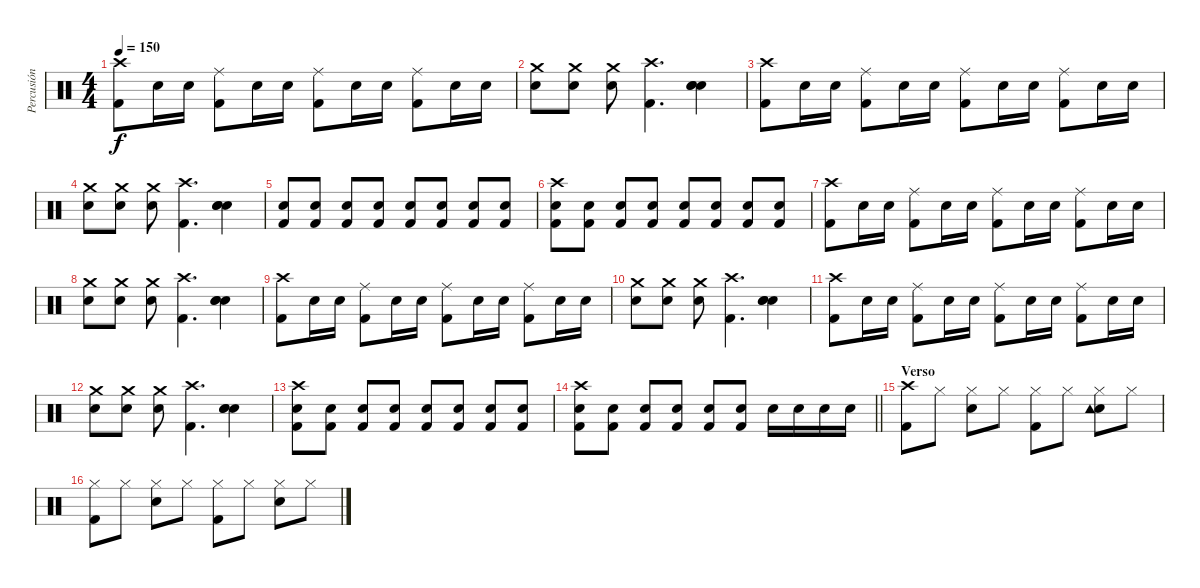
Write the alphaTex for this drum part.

\track ("Percusión" "Percusión") {instrument percussion}
\staff {score}
\articulation defaults
\ts (4 4)
\tempo 150
\clef neutral
\ks c
("Crash high (hit)" "Kick (hit) 2").8{dy f} "Snare (hit) 2".16 "Snare (hit) 2".16 ("Ride (middle)" "Kick (hit) 2").8 "Snare (hit) 2".16 "Snare (hit) 2".16 ("Ride (middle)" "Kick (hit) 2").8 "Snare (hit) 2".16 "Snare (hit) 2".16 ("Ride (middle)" "Kick (hit) 2").8 "Snare (hit) 2".16 "Snare (hit) 2".16 |
("Crash medium (hit)" "Snare (hit) 2").8 ("Crash medium (hit)" "Snare (hit) 2").8 ("Crash medium (hit)" "Snare (hit) 2").8 ("Crash high (hit)" "Kick (hit) 2").4{d} ("Snare (hit) 2" "Snare (hit) 2" "Snare (hit) 2").4 |
("Crash high (hit)" "Kick (hit) 2").8 "Snare (hit) 2".16 "Snare (hit) 2".16 ("Ride (middle)" "Kick (hit) 2").8 "Snare (hit) 2".16 "Snare (hit) 2".16 ("Ride (middle)" "Kick (hit) 2").8 "Snare (hit) 2".16 "Snare (hit) 2".16 ("Ride (middle)" "Kick (hit) 2").8 "Snare (hit) 2".16 "Snare (hit) 2".16 |
("Crash medium (hit)" "Snare (hit) 2").8 ("Crash medium (hit)" "Snare (hit) 2").8 ("Crash medium (hit)" "Snare (hit) 2").8 ("Crash high (hit)" "Kick (hit) 2").4{d} ("Snare (hit) 2" "Snare (hit) 2" "Snare (hit) 2").4 |
("Snare (hit) 2" "Kick (hit) 2").8 ("Snare (hit) 2" "Kick (hit) 2").8 ("Snare (hit) 2" "Kick (hit) 2").8 ("Snare (hit) 2" "Kick (hit) 2").8 ("Snare (hit) 2" "Kick (hit) 2").8 ("Snare (hit) 2" "Kick (hit) 2").8 ("Snare (hit) 2" "Kick (hit) 2").8 ("Snare (hit) 2" "Kick (hit) 2").8 |
("Crash high (hit)" "Snare (hit) 2" "Kick (hit) 2").8 ("Snare (hit) 2" "Kick (hit) 2").8 ("Snare (hit) 2" "Kick (hit) 2").8 ("Snare (hit) 2" "Kick (hit) 2").8 ("Snare (hit) 2" "Kick (hit) 2").8 ("Snare (hit) 2" "Kick (hit) 2").8 ("Snare (hit) 2" "Kick (hit) 2").8 ("Snare (hit) 2" "Kick (hit) 2").8 |
("Crash high (hit)" "Kick (hit) 2").8 "Snare (hit) 2".16 "Snare (hit) 2".16 ("Ride (middle)" "Kick (hit) 2").8 "Snare (hit) 2".16 "Snare (hit) 2".16 ("Ride (middle)" "Kick (hit) 2").8 "Snare (hit) 2".16 "Snare (hit) 2".16 ("Ride (middle)" "Kick (hit) 2").8 "Snare (hit) 2".16 "Snare (hit) 2".16 |
("Crash medium (hit)" "Snare (hit) 2").8 ("Crash medium (hit)" "Snare (hit) 2").8 ("Crash medium (hit)" "Snare (hit) 2").8 ("Crash high (hit)" "Kick (hit) 2").4{d} ("Snare (hit) 2" "Snare (hit) 2" "Snare (hit) 2").4 |
("Crash high (hit)" "Kick (hit) 2").8 "Snare (hit) 2".16 "Snare (hit) 2".16 ("Ride (middle)" "Kick (hit) 2").8 "Snare (hit) 2".16 "Snare (hit) 2".16 ("Ride (middle)" "Kick (hit) 2").8 "Snare (hit) 2".16 "Snare (hit) 2".16 ("Ride (middle)" "Kick (hit) 2").8 "Snare (hit) 2".16 "Snare (hit) 2".16 |
("Crash medium (hit)" "Snare (hit) 2").8 ("Crash medium (hit)" "Snare (hit) 2").8 ("Crash medium (hit)" "Snare (hit) 2").8 ("Crash high (hit)" "Kick (hit) 2").4{d} ("Snare (hit) 2" "Snare (hit) 2" "Snare (hit) 2").4 |
("Crash high (hit)" "Kick (hit) 2").8 "Snare (hit) 2".16 "Snare (hit) 2".16 ("Ride (middle)" "Kick (hit) 2").8 "Snare (hit) 2".16 "Snare (hit) 2".16 ("Ride (middle)" "Kick (hit) 2").8 "Snare (hit) 2".16 "Snare (hit) 2".16 ("Ride (middle)" "Kick (hit) 2").8 "Snare (hit) 2".16 "Snare (hit) 2".16 |
("Crash medium (hit)" "Snare (hit) 2").8 ("Crash medium (hit)" "Snare (hit) 2").8 ("Crash medium (hit)" "Snare (hit) 2").8 ("Crash high (hit)" "Kick (hit) 2").4{d} ("Snare (hit) 2" "Snare (hit) 2" "Snare (hit) 2").4 |
("Crash high (hit)" "Snare (hit) 2" "Kick (hit) 2").8 ("Snare (hit) 2" "Kick (hit) 2").8 ("Snare (hit) 2" "Kick (hit) 2").8 ("Snare (hit) 2" "Kick (hit) 2").8 ("Snare (hit) 2" "Kick (hit) 2").8 ("Snare (hit) 2" "Kick (hit) 2").8 ("Snare (hit) 2" "Kick (hit) 2").8 ("Snare (hit) 2" "Kick (hit) 2").8 |
\barLineRight lightlight
("Crash high (hit)" "Snare (hit) 2" "Kick (hit) 2").8 ("Snare (hit) 2" "Kick (hit) 2").8 ("Snare (hit) 2" "Kick (hit) 2").8 ("Snare (hit) 2" "Kick (hit) 2").8 ("Snare (hit) 2" "Kick (hit) 2").8 ("Snare (hit) 2" "Kick (hit) 2").8 "Snare (hit) 2".16 "Snare (hit) 2".16 "Snare (hit) 2".16 "Snare (hit) 2".16 |
\section ("" "Verso")
("Crash high (hit)" "Kick (hit) 2").8 "Hi-Hat (closed)".8 ("Hi-Hat (closed)" "Snare (hit) 2").8 "Hi-Hat (closed)".8 ("Hi-Hat (closed)" "Kick (hit) 2").8 "Hi-Hat (closed)".8 ("Hi-Hat (closed)" "Snare (hit) 2" "Tambourine (hit)").8 "Hi-Hat (closed)".8 |
("Hi-Hat (closed)" "Kick (hit) 2").8 "Hi-Hat (closed)".8 ("Hi-Hat (closed)" "Snare (hit) 2").8 "Hi-Hat (closed)".8 ("Hi-Hat (closed)" "Kick (hit) 2").8 "Hi-Hat (closed)".8 ("Hi-Hat (closed)" "Snare (hit) 2").8 "Hi-Hat (closed)".8
